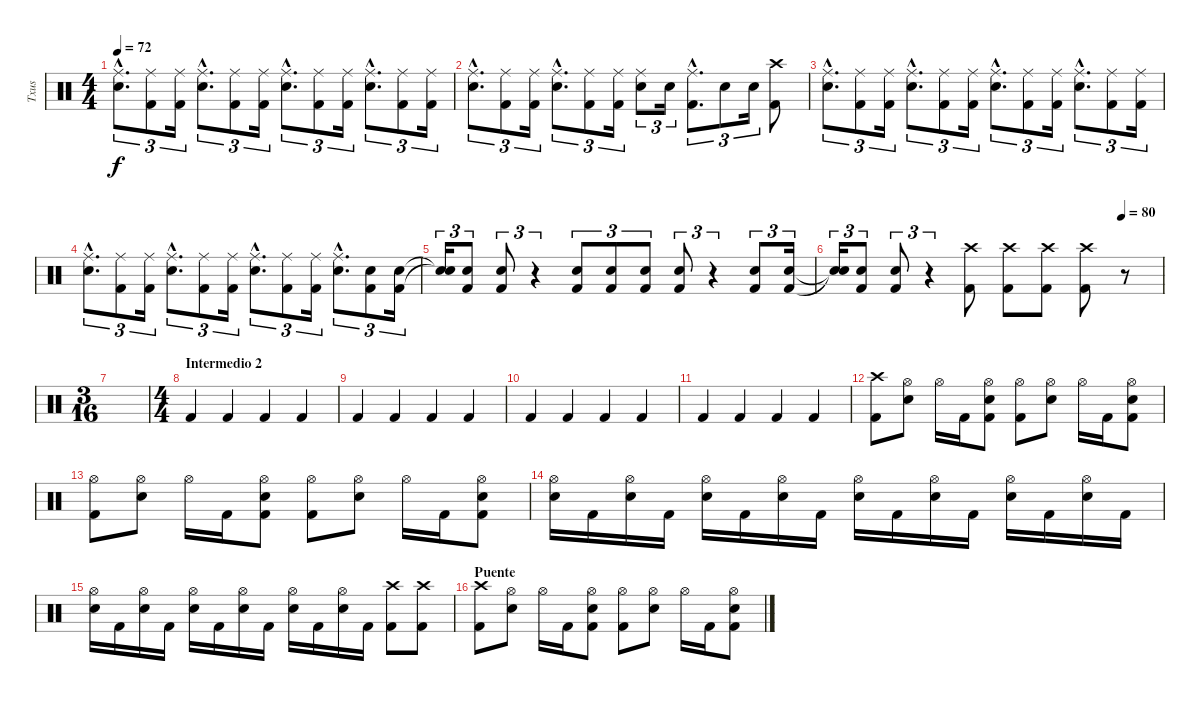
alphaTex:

\track ("Txus" "Txus") {instrument percussion}
\staff {score}
\articulation defaults
\ts (4 4)
\tempo 72
\clef neutral
\ks c
("Electric Snare (hit)"{hac} "Ride (middle)"{hac}).8{d tu (3 2) dy f} ("Kick (hit) 2" "Ride (middle)").8{tu (3 2)} ("Kick (hit) 2" "Ride (middle)").16{tu (3 2)} ("Electric Snare (hit)"{hac} "Ride (middle)"{hac}).8{d tu (3 2)} ("Kick (hit) 2" "Ride (middle)").8{tu (3 2)} ("Kick (hit) 2" "Ride (middle)").16{tu (3 2)} ("Electric Snare (hit)"{hac} "Ride (middle)"{hac}).8{d tu (3 2)} ("Kick (hit) 2" "Ride (middle)").8{tu (3 2)} ("Kick (hit) 2" "Ride (middle)").16{tu (3 2)} ("Electric Snare (hit)"{hac} "Ride (middle)"{hac}).8{d tu (3 2)} ("Kick (hit) 2" "Ride (middle)").8{tu (3 2)} ("Kick (hit) 2" "Ride (middle)").16{tu (3 2)} |
("Electric Snare (hit)"{hac} "Ride (middle)"{hac}).8{d tu (3 2)} ("Kick (hit) 2" "Ride (middle)").8{tu (3 2)} ("Kick (hit) 2" "Ride (middle)").16{tu (3 2)} ("Electric Snare (hit)"{hac} "Ride (middle)"{hac}).8{d tu (3 2)} ("Kick (hit) 2" "Ride (middle)").8{tu (3 2)} ("Kick (hit) 2" "Ride (middle)").16{tu (3 2)} ("Electric Snare (hit)" "Ride (middle)").8{tu (3 2)} "Electric Snare (hit)".16{tu (3 2)} ("Kick (hit) 2"{hac} "Ride (middle)"{hac}).8{d tu (3 2)} "Electric Snare (hit)".8{tu (3 2)} "Electric Snare (hit)".16{tu (3 2)} ("Kick (hit) 2" "Crash high (hit)").8 |
("Electric Snare (hit)"{hac} "Ride (middle)"{hac}).8{d tu (3 2)} ("Kick (hit) 2" "Ride (middle)").8{tu (3 2)} ("Kick (hit) 2" "Ride (middle)").16{tu (3 2)} ("Electric Snare (hit)"{hac} "Ride (middle)"{hac}).8{d tu (3 2)} ("Kick (hit) 2" "Ride (middle)").8{tu (3 2)} ("Kick (hit) 2" "Ride (middle)").16{tu (3 2)} ("Electric Snare (hit)"{hac} "Ride (middle)"{hac}).8{d tu (3 2)} ("Kick (hit) 2" "Ride (middle)").8{tu (3 2)} ("Kick (hit) 2" "Ride (middle)").16{tu (3 2)} ("Electric Snare (hit)"{hac} "Ride (middle)"{hac}).8{d tu (3 2)} ("Kick (hit) 2" "Ride (middle)").8{tu (3 2)} ("Kick (hit) 2" "Ride (middle)").16{tu (3 2)} |
("Electric Snare (hit)"{hac} "Ride (middle)"{hac}).8{d tu (3 2)} ("Kick (hit) 2" "Ride (middle)").8{tu (3 2)} ("Kick (hit) 2" "Ride (middle)").16{tu (3 2)} ("Electric Snare (hit)"{hac} "Ride (middle)"{hac}).8{d tu (3 2)} ("Kick (hit) 2" "Ride (middle)").8{tu (3 2)} ("Kick (hit) 2" "Ride (middle)").16{tu (3 2)} ("Electric Snare (hit)"{hac} "Ride (middle)"{hac}).8{d tu (3 2)} ("Kick (hit) 2" "Ride (middle)").8{tu (3 2)} ("Kick (hit) 2" "Ride (middle)").16{tu (3 2)} ("Electric Snare (hit)"{hac} "Ride (middle)"{hac}).8{d tu (3 2)} ("Kick (hit) 2" "Electric Snare (hit)").8{tu (3 2)} ("Kick (hit) 2" "Electric Snare (hit)").16{tu (3 2)} |
("Snare (hit)"{t} "Snare (hit)"{t}).16{tu (3 2)} ("Kick (hit) 2" "Electric Snare (hit)").8{tu (3 2)} ("Kick (hit) 2" "Electric Snare (hit)").8{tu (3 2)} r.4{tu (3 2)} ("Kick (hit) 2" "Electric Snare (hit)").8{tu (3 2)} ("Kick (hit) 2" "Electric Snare (hit)").8{tu (3 2)} ("Kick (hit) 2" "Electric Snare (hit)").8{tu (3 2)} ("Kick (hit) 2" "Electric Snare (hit)").8{tu (3 2)} r.4{tu (3 2)} ("Kick (hit) 2" "Electric Snare (hit)").8{tu (3 2)} ("Kick (hit) 2" "Electric Snare (hit)").16{tu (3 2)} |
\tempo (80 0.875)
("Snare (hit)"{t} "Snare (hit)"{t}).16{tu (3 2)} ("Kick (hit) 2" "Electric Snare (hit)").8{tu (3 2)} ("Kick (hit) 2" "Electric Snare (hit)").8{tu (3 2)} r.4{tu (3 2)} ("Kick (hit) 2" "Crash high (hit)").8 ("Kick (hit) 2" "Crash high (hit)").8 ("Kick (hit) 2" "Crash high (hit)").8 ("Kick (hit) 2" "Crash high (hit)").8 r.8 |
\ts (3 16)
|
\ts (4 4)
\section ("" "Intermedio 2")
"Kick (hit) 2".4 "Kick (hit) 2".4 "Kick (hit) 2".4 "Kick (hit) 2".4 |
"Kick (hit) 2".4 "Kick (hit) 2".4 "Kick (hit) 2".4 "Kick (hit) 2".4 |
"Kick (hit) 2".4 "Kick (hit) 2".4 "Kick (hit) 2".4 "Kick (hit) 2".4 |
"Kick (hit) 2".4 "Kick (hit) 2".4 "Kick (hit) 2".4 "Kick (hit) 2".4 |
("Kick (hit) 2" "Crash high (hit)").8 ("Hi-Hat (open)" "Electric Snare (hit)").8 "Hi-Hat (open)".16 "Kick (hit) 2".16 ("Kick (hit) 2" "Hi-Hat (open)" "Electric Snare (hit)").8 ("Kick (hit) 2" "Hi-Hat (open)").8 ("Hi-Hat (open)" "Electric Snare (hit)").8 "Hi-Hat (open)".16 "Kick (hit) 2".16 ("Kick (hit) 2" "Hi-Hat (open)" "Electric Snare (hit)").8 |
("Kick (hit) 2" "Hi-Hat (open)").8 ("Hi-Hat (open)" "Electric Snare (hit)").8 "Hi-Hat (open)".16 "Kick (hit) 2".16 ("Kick (hit) 2" "Hi-Hat (open)" "Electric Snare (hit)").8 ("Kick (hit) 2" "Hi-Hat (open)").8 ("Hi-Hat (open)" "Electric Snare (hit)").8 "Hi-Hat (open)".16 "Kick (hit) 2".16 ("Kick (hit) 2" "Hi-Hat (open)" "Electric Snare (hit)").8 |
("Electric Snare (hit)" "Hi-Hat (open)").16 "Kick (hit) 2".16 ("Electric Snare (hit)" "Hi-Hat (open)").16 "Kick (hit) 2".16 ("Electric Snare (hit)" "Hi-Hat (open)").16 "Kick (hit) 2".16 ("Electric Snare (hit)" "Hi-Hat (open)").16 "Kick (hit) 2".16 ("Electric Snare (hit)" "Hi-Hat (open)").16 "Kick (hit) 2".16 ("Electric Snare (hit)" "Hi-Hat (open)").16 "Kick (hit) 2".16 ("Electric Snare (hit)" "Hi-Hat (open)").16 "Kick (hit) 2".16 ("Electric Snare (hit)" "Hi-Hat (open)").16 "Kick (hit) 2".16 |
("Electric Snare (hit)" "Hi-Hat (open)").16 "Kick (hit) 2".16 ("Electric Snare (hit)" "Hi-Hat (open)").16 "Kick (hit) 2".16 ("Electric Snare (hit)" "Hi-Hat (open)").16 "Kick (hit) 2".16 ("Electric Snare (hit)" "Hi-Hat (open)").16 "Kick (hit) 2".16 ("Electric Snare (hit)" "Hi-Hat (open)").16 "Kick (hit) 2".16 ("Electric Snare (hit)" "Hi-Hat (open)").16 "Kick (hit) 2".16 ("Kick (hit) 2" "Crash high (hit)").8 ("Kick (hit) 2" "Crash high (hit)").8 |
\section ("" "Puente")
("Kick (hit) 2" "Crash high (hit)").8 ("Hi-Hat (open)" "Electric Snare (hit)").8 "Hi-Hat (open)".16 "Kick (hit) 2".16 ("Kick (hit) 2" "Hi-Hat (open)" "Electric Snare (hit)").8 ("Kick (hit) 2" "Hi-Hat (open)").8 ("Hi-Hat (open)" "Electric Snare (hit)").8 "Hi-Hat (open)".16 "Kick (hit) 2".16 ("Kick (hit) 2" "Hi-Hat (open)" "Electric Snare (hit)").8
